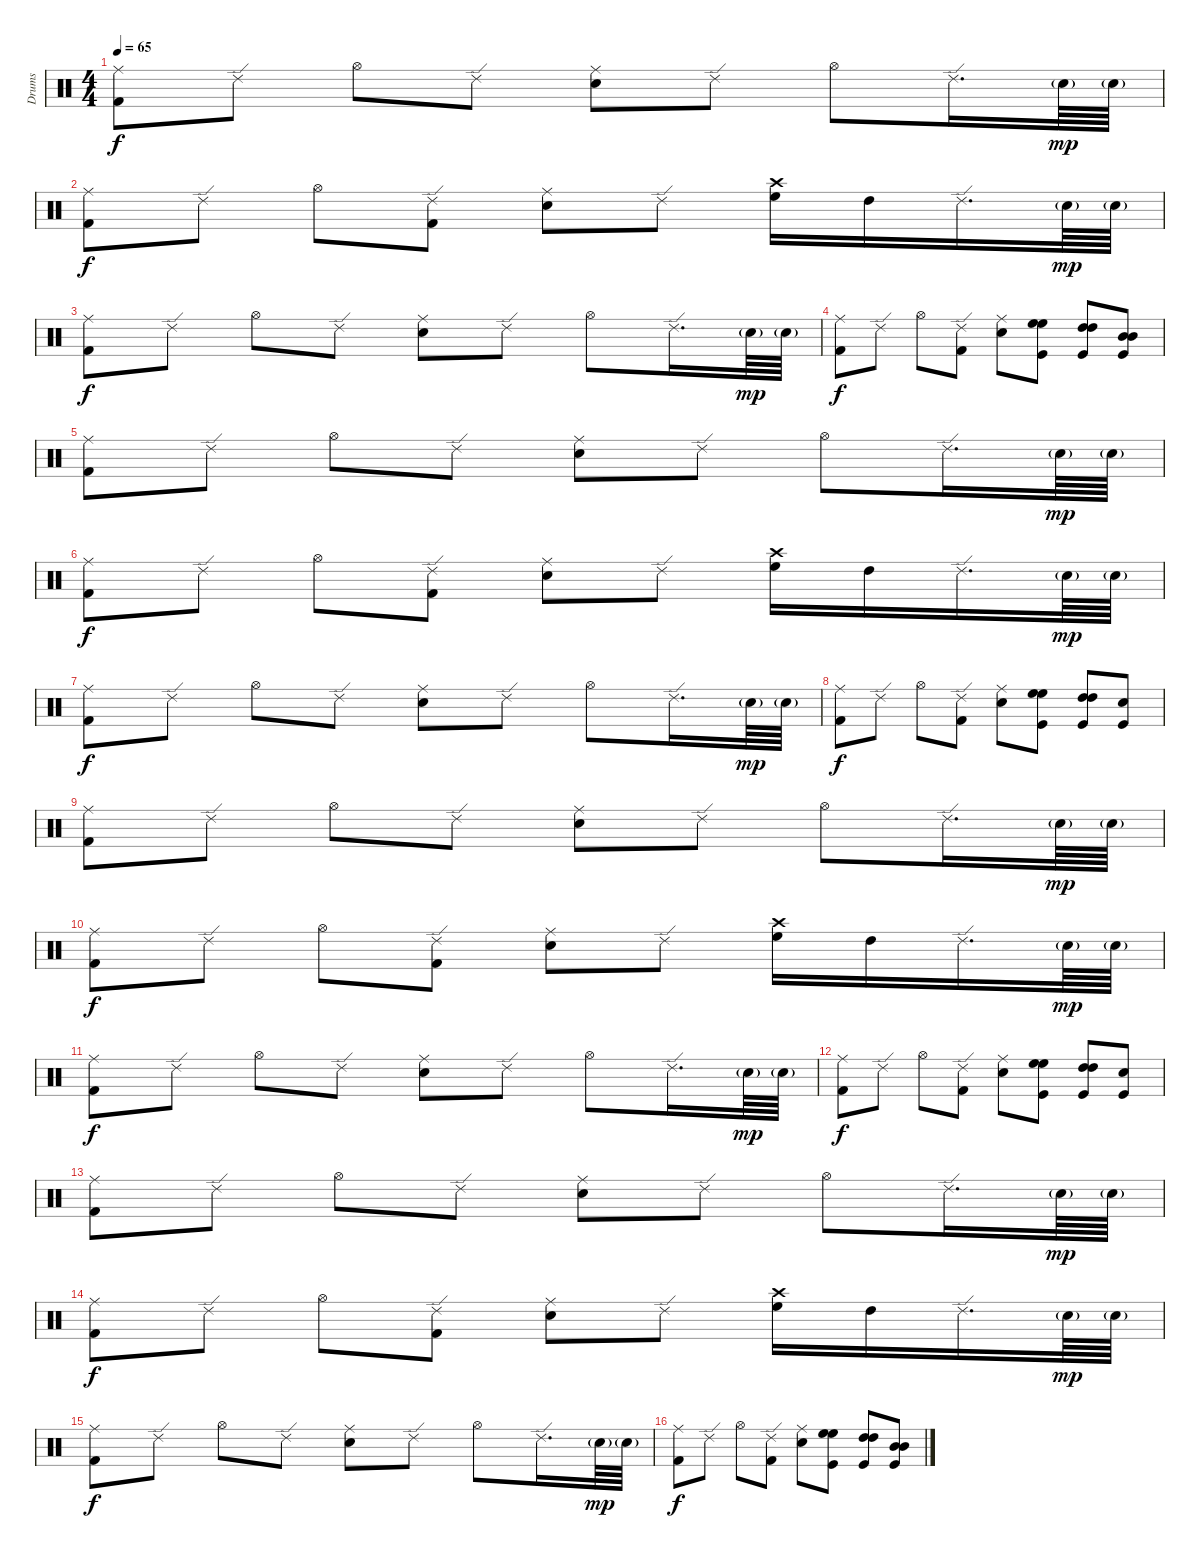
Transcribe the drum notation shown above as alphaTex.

\track ("Drums" "Drums") {instrument percussion}
\staff {score}
\articulation defaults
\ts (4 4)
\tempo 65
\clef neutral
\ks c
("Ride (middle)" "Kick (hit) 2").8{dy f} "Ride (edge) 2".8 "Hi-Hat (open)".8 "Ride (edge) 2".8 ("Ride (middle)" "Snare (hit) 2").8 "Ride (edge) 2".8 "Hi-Hat (open)".8 "Ride (edge) 2".16{d} "Snare (hit) 2"{g}.64{dy mp} "Snare (hit) 2"{g}.64 |
("Ride (middle)" "Kick (hit) 2").8{dy f} "Ride (edge) 2".8 "Hi-Hat (open)".8 ("Ride (edge) 2" "Kick (hit) 2").8 ("Ride (middle)" "Snare (hit) 2").8 "Ride (edge) 2".8 ("Crash high (hit)" "High Floor Tom (hit)").16 "High Tom (hit)".16 "Ride (edge) 2".16{d} "Snare (hit) 2"{g}.64{dy mp} "Snare (hit) 2"{g}.64 |
("Ride (middle)" "Kick (hit) 2").8{dy f} "Ride (edge) 2".8 "Hi-Hat (open)".8 "Ride (edge) 2".8 ("Ride (middle)" "Snare (hit) 2").8 "Ride (edge) 2".8 "Hi-Hat (open)".8 "Ride (edge) 2".16{d} "Snare (hit) 2"{g}.64{dy mp} "Snare (hit) 2"{g}.64 |
("Ride (middle)" "Kick (hit) 2").8{dy f} "Ride (edge) 2".8 "Hi-Hat (open)".8 ("Ride (edge) 2" "Kick (hit) 2").8 ("Ride (middle)" "Snare (hit) 2").8 ("High Floor Tom (hit)" "High Floor Tom (hit)" "Kick (hit)").8 ("High Tom (hit)" "High Tom (hit)" "Kick (hit)").8 ("Mid Tom (hit)" "Mid Tom (hit)" "Kick (hit)").8 |
("Ride (middle)" "Kick (hit) 2").8 "Ride (edge) 2".8 "Hi-Hat (open)".8 "Ride (edge) 2".8 ("Ride (middle)" "Snare (hit) 2").8 "Ride (edge) 2".8 "Hi-Hat (open)".8 "Ride (edge) 2".16{d} "Snare (hit) 2"{g}.64{dy mp} "Snare (hit) 2"{g}.64 |
("Ride (middle)" "Kick (hit) 2").8{dy f} "Ride (edge) 2".8 "Hi-Hat (open)".8 ("Ride (edge) 2" "Kick (hit) 2").8 ("Ride (middle)" "Snare (hit) 2").8 "Ride (edge) 2".8 ("Crash high (hit)" "High Floor Tom (hit)").16 "High Tom (hit)".16 "Ride (edge) 2".16{d} "Snare (hit) 2"{g}.64{dy mp} "Snare (hit) 2"{g}.64 |
("Ride (middle)" "Kick (hit) 2").8{dy f} "Ride (edge) 2".8 "Hi-Hat (open)".8 "Ride (edge) 2".8 ("Ride (middle)" "Snare (hit) 2").8 "Ride (edge) 2".8 "Hi-Hat (open)".8 "Ride (edge) 2".16{d} "Snare (hit) 2"{g}.64{dy mp} "Snare (hit) 2"{g}.64 |
("Ride (middle)" "Kick (hit) 2").8{dy f} "Ride (edge) 2".8 "Hi-Hat (open)".8 ("Ride (edge) 2" "Kick (hit) 2").8 ("Ride (middle)" "Snare (hit) 2").8 ("High Floor Tom (hit)" "High Floor Tom (hit)" "Kick (hit)").8 ("High Tom (hit)" "High Tom (hit)" "Kick (hit)").8 ("Snare (hit) 2" "Kick (hit)").8 |
("Ride (middle)" "Kick (hit) 2").8 "Ride (edge) 2".8 "Hi-Hat (open)".8 "Ride (edge) 2".8 ("Ride (middle)" "Snare (hit) 2").8 "Ride (edge) 2".8 "Hi-Hat (open)".8 "Ride (edge) 2".16{d} "Snare (hit) 2"{g}.64{dy mp} "Snare (hit) 2"{g}.64 |
("Ride (middle)" "Kick (hit) 2").8{dy f} "Ride (edge) 2".8 "Hi-Hat (open)".8 ("Ride (edge) 2" "Kick (hit) 2").8 ("Ride (middle)" "Snare (hit) 2").8 "Ride (edge) 2".8 ("Crash high (hit)" "High Floor Tom (hit)").16 "High Tom (hit)".16 "Ride (edge) 2".16{d} "Snare (hit) 2"{g}.64{dy mp} "Snare (hit) 2"{g}.64 |
("Ride (middle)" "Kick (hit) 2").8{dy f} "Ride (edge) 2".8 "Hi-Hat (open)".8 "Ride (edge) 2".8 ("Ride (middle)" "Snare (hit) 2").8 "Ride (edge) 2".8 "Hi-Hat (open)".8 "Ride (edge) 2".16{d} "Snare (hit) 2"{g}.64{dy mp} "Snare (hit) 2"{g}.64 |
("Ride (middle)" "Kick (hit) 2").8{dy f} "Ride (edge) 2".8 "Hi-Hat (open)".8 ("Ride (edge) 2" "Kick (hit) 2").8 ("Ride (middle)" "Snare (hit) 2").8 ("High Floor Tom (hit)" "High Floor Tom (hit)" "Kick (hit)").8 ("High Tom (hit)" "High Tom (hit)" "Kick (hit)").8 ("Snare (hit) 2" "Kick (hit)").8 |
("Ride (middle)" "Kick (hit) 2").8 "Ride (edge) 2".8 "Hi-Hat (open)".8 "Ride (edge) 2".8 ("Ride (middle)" "Snare (hit) 2").8 "Ride (edge) 2".8 "Hi-Hat (open)".8 "Ride (edge) 2".16{d} "Snare (hit) 2"{g}.64{dy mp} "Snare (hit) 2"{g}.64 |
("Ride (middle)" "Kick (hit) 2").8{dy f} "Ride (edge) 2".8 "Hi-Hat (open)".8 ("Ride (edge) 2" "Kick (hit) 2").8 ("Ride (middle)" "Snare (hit) 2").8 "Ride (edge) 2".8 ("Crash high (hit)" "High Floor Tom (hit)").16 "High Tom (hit)".16 "Ride (edge) 2".16{d} "Snare (hit) 2"{g}.64{dy mp} "Snare (hit) 2"{g}.64 |
("Ride (middle)" "Kick (hit) 2").8{dy f} "Ride (edge) 2".8 "Hi-Hat (open)".8 "Ride (edge) 2".8 ("Ride (middle)" "Snare (hit) 2").8 "Ride (edge) 2".8 "Hi-Hat (open)".8 "Ride (edge) 2".16{d} "Snare (hit) 2"{g}.64{dy mp} "Snare (hit) 2"{g}.64 |
("Ride (middle)" "Kick (hit) 2").8{dy f} "Ride (edge) 2".8 "Hi-Hat (open)".8 ("Ride (edge) 2" "Kick (hit) 2").8 ("Ride (middle)" "Snare (hit) 2").8 ("High Floor Tom (hit)" "High Floor Tom (hit)" "Kick (hit)").8 ("High Tom (hit)" "High Tom (hit)" "Kick (hit)").8 ("Mid Tom (hit)" "Mid Tom (hit)" "Kick (hit)").8
